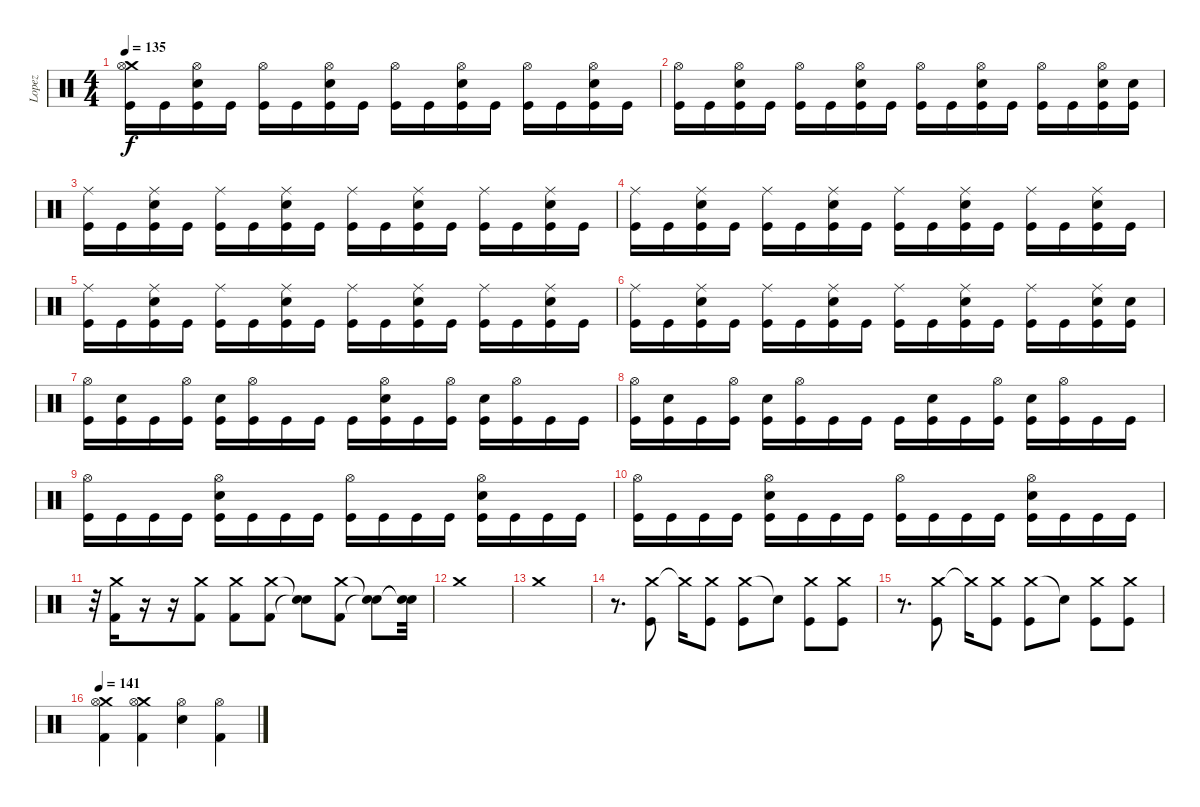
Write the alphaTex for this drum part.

\track ("Lopez" "Lopez") {instrument percussion}
\staff {score}
\articulation defaults
\ts (4 4)
\tempo 135
\clef neutral
\ks c
("Crash medium (hit)" "Hi-Hat (open)" "Kick (hit)").16{dy f} "Kick (hit)".16 ("Hi-Hat (open)" "Electric Snare (hit)" "Kick (hit)").16 "Kick (hit)".16 ("Hi-Hat (open)" "Kick (hit)").16 "Kick (hit)".16 ("Hi-Hat (open)" "Electric Snare (hit)" "Kick (hit)").16 "Kick (hit)".16 ("Hi-Hat (open)" "Kick (hit)").16 "Kick (hit)".16 ("Hi-Hat (open)" "Electric Snare (hit)" "Kick (hit)").16 "Kick (hit)".16 ("Hi-Hat (open)" "Kick (hit)").16 "Kick (hit)".16 ("Hi-Hat (open)" "Electric Snare (hit)" "Kick (hit)").16 "Kick (hit)".16 |
("Hi-Hat (open)" "Kick (hit)").16 "Kick (hit)".16 ("Hi-Hat (open)" "Electric Snare (hit)" "Kick (hit)").16 "Kick (hit)".16 ("Hi-Hat (open)" "Kick (hit)").16 "Kick (hit)".16 ("Hi-Hat (open)" "Electric Snare (hit)" "Kick (hit)").16 "Kick (hit)".16 ("Hi-Hat (open)" "Kick (hit)").16 "Kick (hit)".16 ("Hi-Hat (open)" "Electric Snare (hit)" "Kick (hit)").16 "Kick (hit)".16 ("Hi-Hat (open)" "Kick (hit)").16 "Kick (hit)".16 ("Hi-Hat (open)" "Electric Snare (hit)" "Kick (hit)").16 ("Electric Snare (hit)" "Kick (hit)").16 |
("Ride (middle)" "Kick (hit)").16 "Kick (hit)".16 ("Ride (middle)" "Electric Snare (hit)" "Kick (hit)").16 "Kick (hit)".16 ("Ride (middle)" "Kick (hit)").16 "Kick (hit)".16 ("Ride (middle)" "Electric Snare (hit)" "Kick (hit)").16 "Kick (hit)".16 ("Ride (middle)" "Kick (hit)").16 "Kick (hit)".16 ("Ride (middle)" "Electric Snare (hit)" "Kick (hit)").16 "Kick (hit)".16 ("Ride (middle)" "Kick (hit)").16 "Kick (hit)".16 ("Ride (middle)" "Electric Snare (hit)" "Kick (hit)").16 "Kick (hit)".16 |
("Ride (middle)" "Kick (hit)").16 "Kick (hit)".16 ("Ride (middle)" "Electric Snare (hit)" "Kick (hit)").16 "Kick (hit)".16 ("Ride (middle)" "Kick (hit)").16 "Kick (hit)".16 ("Ride (middle)" "Electric Snare (hit)" "Kick (hit)").16 "Kick (hit)".16 ("Ride (middle)" "Kick (hit)").16 "Kick (hit)".16 ("Ride (middle)" "Electric Snare (hit)" "Kick (hit)").16 "Kick (hit)".16 ("Ride (middle)" "Kick (hit)").16 "Kick (hit)".16 ("Ride (middle)" "Electric Snare (hit)" "Kick (hit)").16 "Kick (hit)".16 |
("Ride (middle)" "Kick (hit)").16 "Kick (hit)".16 ("Ride (middle)" "Electric Snare (hit)" "Kick (hit)").16 "Kick (hit)".16 ("Ride (middle)" "Kick (hit)").16 "Kick (hit)".16 ("Ride (middle)" "Electric Snare (hit)" "Kick (hit)").16 "Kick (hit)".16 ("Ride (middle)" "Kick (hit)").16 "Kick (hit)".16 ("Ride (middle)" "Electric Snare (hit)" "Kick (hit)").16 "Kick (hit)".16 ("Ride (middle)" "Kick (hit)").16 "Kick (hit)".16 ("Ride (middle)" "Electric Snare (hit)" "Kick (hit)").16 "Kick (hit)".16 |
("Ride (middle)" "Kick (hit)").16 "Kick (hit)".16 ("Ride (middle)" "Electric Snare (hit)" "Kick (hit)").16 "Kick (hit)".16 ("Ride (middle)" "Kick (hit)").16 "Kick (hit)".16 ("Ride (middle)" "Electric Snare (hit)" "Kick (hit)").16 "Kick (hit)".16 ("Ride (middle)" "Kick (hit)").16 "Kick (hit)".16 ("Ride (middle)" "Electric Snare (hit)" "Kick (hit)").16 "Kick (hit)".16 ("Ride (middle)" "Kick (hit)").16 "Kick (hit)".16 ("Ride (middle)" "Electric Snare (hit)" "Kick (hit)").16 ("Electric Snare (hit)" "Kick (hit)").16 |
("Hi-Hat (open)" "Kick (hit)").16 ("Electric Snare (hit)" "Kick (hit)").16 "Kick (hit)".16 ("Hi-Hat (open)" "Kick (hit)").16 ("Electric Snare (hit)" "Kick (hit)").16 ("Hi-Hat (open)" "Kick (hit)").16 "Kick (hit)".16 "Kick (hit)".16 "Kick (hit)".16 ("Hi-Hat (open)" "Electric Snare (hit)" "Kick (hit)").16 "Kick (hit)".16 ("Hi-Hat (open)" "Kick (hit)").16 ("Electric Snare (hit)" "Kick (hit)").16 ("Hi-Hat (open)" "Kick (hit)").16 "Kick (hit)".16 "Kick (hit)".16 |
("Hi-Hat (open)" "Kick (hit)").16 ("Electric Snare (hit)" "Kick (hit)").16 "Kick (hit)".16 ("Hi-Hat (open)" "Kick (hit)").16 ("Electric Snare (hit)" "Kick (hit)").16 ("Hi-Hat (open)" "Kick (hit)").16 "Kick (hit)".16 "Kick (hit)".16 "Kick (hit)".16 ("Electric Snare (hit)" "Kick (hit)").16 "Kick (hit)".16 ("Hi-Hat (open)" "Kick (hit)").16 ("Electric Snare (hit)" "Kick (hit)").16 ("Hi-Hat (open)" "Kick (hit)").16 "Kick (hit)".16 "Kick (hit)".16 |
("Hi-Hat (open)" "Kick (hit)").16 "Kick (hit)".16 "Kick (hit)".16 "Kick (hit)".16 ("Hi-Hat (open)" "Electric Snare (hit)" "Kick (hit)").16 "Kick (hit)".16 "Kick (hit)".16 "Kick (hit)".16 ("Hi-Hat (open)" "Kick (hit)").16 "Kick (hit)".16 "Kick (hit)".16 "Kick (hit)".16 ("Hi-Hat (open)" "Electric Snare (hit)" "Kick (hit)").16 "Kick (hit)".16 "Kick (hit)".16 "Kick (hit)".16 |
("Hi-Hat (open)" "Kick (hit)").16 "Kick (hit)".16 "Kick (hit)".16 "Kick (hit)".16 ("Hi-Hat (open)" "Electric Snare (hit)" "Kick (hit)").16 "Kick (hit)".16 "Kick (hit)".16 "Kick (hit)".16 ("Hi-Hat (open)" "Kick (hit)").16 "Kick (hit)".16 "Kick (hit)".16 "Kick (hit)".16 ("Hi-Hat (open)" "Electric Snare (hit)" "Kick (hit)").16 "Kick (hit)".16 "Kick (hit)".16 "Kick (hit)".16 |
r.32 ("Crash medium (hit)" "Kick (hit) 2").16 r.16 r.16 ("Crash medium (hit)" "Kick (hit) 2").8 ("Crash medium (hit)" "Kick (hit) 2").8 ("Crash medium (hit)" "Kick (hit) 2").8 ("Snare (hit)"{t} "Snare (hit)"{t}).8 ("Crash medium (hit)" "Kick (hit) 2").8 ("Snare (hit)"{t} "Snare (hit)"{t}).8 ("Snare (hit)"{t} "Snare (hit)"{t}).32 |
"Crash medium (hit)".1 |
"Crash medium (hit)".1 |
r.8{d} ("Crash medium (hit)" "Kick (hit)").8 "Crash medium (hit)"{t}.16 ("Crash medium (hit)" "Kick (hit)").8 ("Crash medium (hit)" "Kick (hit)").8 "Snare (hit)"{t}.8 ("Crash medium (hit)" "Kick (hit)").8 ("Crash medium (hit)" "Kick (hit)").8 |
r.8{d} ("Crash medium (hit)" "Kick (hit)").8 "Crash medium (hit)"{t}.16 ("Crash medium (hit)" "Kick (hit)").8 ("Crash medium (hit)" "Kick (hit)").8 "Snare (hit)"{t}.8 ("Crash medium (hit)" "Kick (hit)").8 ("Crash medium (hit)" "Kick (hit)").8 |
\tempo 141
("Crash medium (hit)" "Hi-Hat (open)" "Kick (hit) 2").4 ("Crash medium (hit)" "Hi-Hat (open)" "Kick (hit) 2").4 ("Hi-Hat (open)" "Electric Snare (hit)").4 ("Hi-Hat (open)" "Kick (hit) 2").4
